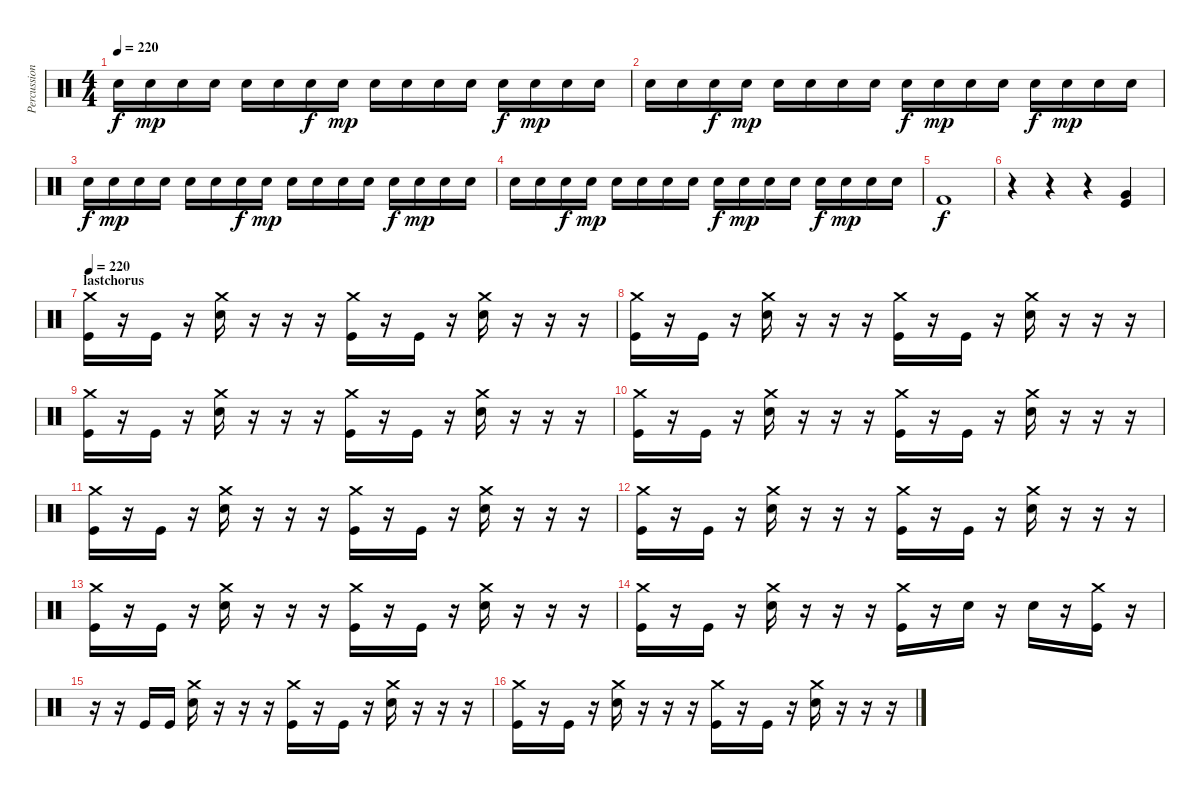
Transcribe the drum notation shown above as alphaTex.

\track ("Percussion" "Percussion") {instrument percussion}
\staff {score}
\articulation defaults
\ts (4 4)
\tempo 220
\clef neutral
\ks c "Electric Snare (hit)".16{dy f} "Electric Snare (hit)".16{dy mp} "Electric Snare (hit)".16 "Electric Snare (hit)".16 "Electric Snare (hit)".16 "Electric Snare (hit)".16 "Electric Snare (hit)".16{dy f} "Electric Snare (hit)".16{dy mp} "Electric Snare (hit)".16 "Electric Snare (hit)".16 "Electric Snare (hit)".16 "Electric Snare (hit)".16 "Electric Snare (hit)".16{dy f} "Electric Snare (hit)".16{dy mp} "Electric Snare (hit)".16 "Electric Snare (hit)".16
|
"Electric Snare (hit)".16 "Electric Snare (hit)".16 "Electric Snare (hit)".16{dy f} "Electric Snare (hit)".16{dy mp} "Electric Snare (hit)".16 "Electric Snare (hit)".16 "Electric Snare (hit)".16 "Electric Snare (hit)".16 "Electric Snare (hit)".16{dy f} "Electric Snare (hit)".16{dy mp} "Electric Snare (hit)".16 "Electric Snare (hit)".16 "Electric Snare (hit)".16{dy f} "Electric Snare (hit)".16{dy mp} "Electric Snare (hit)".16 "Electric Snare (hit)".16 |
"Electric Snare (hit)".16{dy f} "Electric Snare (hit)".16{dy mp} "Electric Snare (hit)".16 "Electric Snare (hit)".16 "Electric Snare (hit)".16 "Electric Snare (hit)".16 "Electric Snare (hit)".16{dy f} "Electric Snare (hit)".16{dy mp} "Electric Snare (hit)".16 "Electric Snare (hit)".16 "Electric Snare (hit)".16 "Electric Snare (hit)".16 "Electric Snare (hit)".16{dy f} "Electric Snare (hit)".16{dy mp} "Electric Snare (hit)".16 "Electric Snare (hit)".16 |
"Electric Snare (hit)".16 "Electric Snare (hit)".16 "Electric Snare (hit)".16{dy f} "Electric Snare (hit)".16{dy mp} "Electric Snare (hit)".16 "Electric Snare (hit)".16 "Electric Snare (hit)".16 "Electric Snare (hit)".16 "Electric Snare (hit)".16{dy f} "Electric Snare (hit)".16{dy mp} "Electric Snare (hit)".16 "Electric Snare (hit)".16 "Electric Snare (hit)".16{dy f} "Electric Snare (hit)".16{dy mp} "Electric Snare (hit)".16 "Electric Snare (hit)".16 |
"Kick (hit) 2".1{dy f} |
r.4 r.4 r.4 ("Very Low Tom (hit)" "Kick (hit)").4 |
\section ("" "lastchorus")
\tempo 220
("Crash medium (hit)" "Kick (hit)").16 r.16 "Kick (hit)".16 r.16 ("Crash medium (hit)" "Electric Snare (hit)").16 r.16 r.16 r.16 ("Crash medium (hit)" "Kick (hit)").16 r.16 "Kick (hit)".16 r.16 ("Crash medium (hit)" "Electric Snare (hit)").16 r.16 r.16 r.16 |
("Crash medium (hit)" "Kick (hit)").16 r.16 "Kick (hit)".16 r.16 ("Crash medium (hit)" "Electric Snare (hit)").16 r.16 r.16 r.16 ("Crash medium (hit)" "Kick (hit)").16 r.16 "Kick (hit)".16 r.16 ("Crash medium (hit)" "Electric Snare (hit)").16 r.16 r.16 r.16 |
("Crash medium (hit)" "Kick (hit)").16 r.16 "Kick (hit)".16 r.16 ("Crash medium (hit)" "Electric Snare (hit)").16 r.16 r.16 r.16 ("Crash medium (hit)" "Kick (hit)").16 r.16 "Kick (hit)".16 r.16 ("Crash medium (hit)" "Electric Snare (hit)").16 r.16 r.16 r.16 |
("Crash medium (hit)" "Kick (hit)").16 r.16 "Kick (hit)".16 r.16 ("Crash medium (hit)" "Electric Snare (hit)").16 r.16 r.16 r.16 ("Crash medium (hit)" "Kick (hit)").16 r.16 "Kick (hit)".16 r.16 ("Crash medium (hit)" "Electric Snare (hit)").16 r.16 r.16 r.16 |
("Crash medium (hit)" "Kick (hit)").16 r.16 "Kick (hit)".16 r.16 ("Crash medium (hit)" "Electric Snare (hit)").16 r.16 r.16 r.16 ("Crash medium (hit)" "Kick (hit)").16 r.16 "Kick (hit)".16 r.16 ("Crash medium (hit)" "Electric Snare (hit)").16 r.16 r.16 r.16 |
("Crash medium (hit)" "Kick (hit)").16 r.16 "Kick (hit)".16 r.16 ("Crash medium (hit)" "Electric Snare (hit)").16 r.16 r.16 r.16 ("Crash medium (hit)" "Kick (hit)").16 r.16 "Kick (hit)".16 r.16 ("Crash medium (hit)" "Electric Snare (hit)").16 r.16 r.16 r.16 |
("Crash medium (hit)" "Kick (hit)").16 r.16 "Kick (hit)".16 r.16 ("Crash medium (hit)" "Electric Snare (hit)").16 r.16 r.16 r.16 ("Crash medium (hit)" "Kick (hit)").16 r.16 "Kick (hit)".16 r.16 ("Crash medium (hit)" "Electric Snare (hit)").16 r.16 r.16 r.16 |
("Crash medium (hit)" "Kick (hit)").16 r.16 "Kick (hit)".16 r.16 ("Crash medium (hit)" "Electric Snare (hit)").16 r.16 r.16 r.16 ("Crash medium (hit)" "Kick (hit)").16 r.16 "Electric Snare (hit)".16 r.16 "Electric Snare (hit)".16 r.16 ("Crash medium (hit)" "Kick (hit)").16 r.16 |
r.16 r.16 "Kick (hit)".16 "Kick (hit)".16 ("Crash medium (hit)" "Electric Snare (hit)").16 r.16 r.16 r.16 ("Crash medium (hit)" "Kick (hit)").16 r.16 "Kick (hit)".16 r.16 ("Crash medium (hit)" "Electric Snare (hit)").16 r.16 r.16 r.16 |
("Crash medium (hit)" "Kick (hit)").16 r.16 "Kick (hit)".16 r.16 ("Crash medium (hit)" "Electric Snare (hit)").16 r.16 r.16 r.16 ("Crash medium (hit)" "Kick (hit)").16 r.16 "Kick (hit)".16 r.16 ("Crash medium (hit)" "Electric Snare (hit)").16 r.16 r.16 r.16
